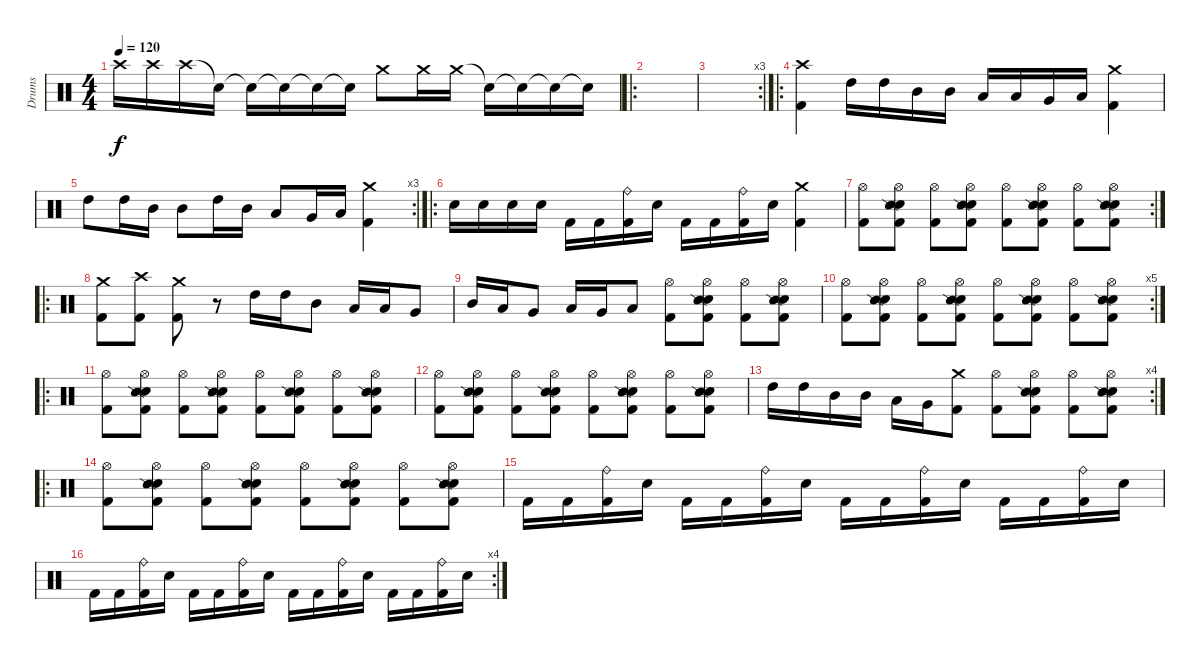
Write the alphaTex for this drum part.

\track ("Drums" "Drums") {instrument percussion}
\staff {score}
\articulation defaults
\ts (4 4)
\tempo 120
\clef neutral
\ks c "Crash high (hit)".16{dy f} "Crash high (hit)".16 "Crash high (hit)".16 "Snare (hit)"{t}.16 "Snare (hit)"{t}.16 "Snare (hit)"{t}.16 "Snare (hit)"{t}.16 "Snare (hit)"{t}.16 "Crash medium (hit)".8 "Crash medium (hit)".16 "Crash medium (hit)".16 "Snare (hit)"{t}.16 "Snare (hit)"{t}.16 "Snare (hit)"{t}.16 "Snare (hit)"{t}.16
|
\ro
|
\rc 3
|
\ro
("Crash high (hit)" "Kick (hit) 2").4 "High Tom (hit)".16 "High Tom (hit)".16 "Mid Tom (hit)".16 "Mid Tom (hit)".16 "Low Tom (hit)".16 "Low Tom (hit)".16 "Very Low Tom (hit)".16 "Low Floor Tom (hit)".16 ("Crash medium (hit)" "Kick (hit) 2").4 |
\rc 3 "High Tom (hit)".8 "High Tom (hit)".16 "Mid Tom (hit)".16 "Mid Tom (hit)".8 "High Tom (hit)".16 "Mid Tom (hit)".16 "Low Tom (hit)".8 "Very Low Tom (hit)".16 "Low Floor Tom (hit)".16
("Crash medium (hit)" "Kick (hit) 2").4 |
\ro "Electric Snare (hit)".16 "Electric Snare (hit)".16 "Electric Snare (hit)".16 "Electric Snare (hit)".16 "Kick (hit) 2".16 "Kick (hit) 2".16
("Ride (bell)" "Kick (hit) 2").16 "Electric Snare (hit)".16 "Kick (hit) 2".16 "Kick (hit) 2".16 ("Ride (bell)" "Kick (hit) 2").16 "Electric Snare (hit)".16 ("Crash medium (hit)" "Kick (hit) 2").4 |
\rc 2
("Hi-Hat (open)" "Kick (hit) 2").8 ("Hi-Hat (open)" "Electric Snare (hit)" "Snare (side stick) 2" "Kick (hit) 2").8 ("Hi-Hat (open)" "Kick (hit) 2").8 ("Hi-Hat (open)" "Electric Snare (hit)" "Snare (side stick) 2" "Kick (hit) 2").8 ("Hi-Hat (open)" "Kick (hit) 2").8 ("Hi-Hat (open)" "Electric Snare (hit)" "Snare (side stick) 2" "Kick (hit) 2").8 ("Hi-Hat (open)" "Kick (hit) 2").8 ("Hi-Hat (open)" "Electric Snare (hit)" "Snare (side stick) 2" "Kick (hit) 2").8 |
\ro
("Crash medium (hit)" "Kick (hit) 2").8 ("Crash high (hit)" "Kick (hit) 2").8 ("Crash medium (hit)" "Kick (hit) 2").8 r.8 "High Tom (hit)".16 "High Tom (hit)".16 "Mid Tom (hit)".8 "Low Tom (hit)".16 "Low Tom (hit)".16 "Very Low Tom (hit)".8 |
"Mid Tom (hit)".16 "Low Tom (hit)".16 "Very Low Tom (hit)".8 "Low Tom (hit)".16 "Very Low Tom (hit)".16 "Low Floor Tom (hit)".8 ("Hi-Hat (open)" "Kick (hit) 2").8 ("Hi-Hat (open)" "Electric Snare (hit)" "Snare (side stick) 2" "Kick (hit) 2").8 ("Hi-Hat (open)" "Kick (hit) 2").8 ("Hi-Hat (open)" "Electric Snare (hit)" "Snare (side stick) 2" "Kick (hit) 2").8 |
\rc 5
("Hi-Hat (open)" "Kick (hit) 2").8 ("Hi-Hat (open)" "Electric Snare (hit)" "Snare (side stick) 2" "Kick (hit) 2").8 ("Hi-Hat (open)" "Kick (hit) 2").8 ("Hi-Hat (open)" "Electric Snare (hit)" "Snare (side stick) 2" "Kick (hit) 2").8 ("Hi-Hat (open)" "Kick (hit) 2").8 ("Hi-Hat (open)" "Electric Snare (hit)" "Snare (side stick) 2" "Kick (hit) 2").8 ("Hi-Hat (open)" "Kick (hit) 2").8 ("Hi-Hat (open)" "Electric Snare (hit)" "Snare (side stick) 2" "Kick (hit) 2").8 |
\ro
("Hi-Hat (open)" "Kick (hit) 2").8 ("Hi-Hat (open)" "Electric Snare (hit)" "Snare (side stick) 2" "Kick (hit) 2").8 ("Hi-Hat (open)" "Kick (hit) 2").8 ("Hi-Hat (open)" "Electric Snare (hit)" "Snare (side stick) 2" "Kick (hit) 2").8 ("Hi-Hat (open)" "Kick (hit) 2").8 ("Hi-Hat (open)" "Electric Snare (hit)" "Snare (side stick) 2" "Kick (hit) 2").8 ("Hi-Hat (open)" "Kick (hit) 2").8 ("Hi-Hat (open)" "Electric Snare (hit)" "Snare (side stick) 2" "Kick (hit) 2").8 |
("Hi-Hat (open)" "Kick (hit) 2").8 ("Hi-Hat (open)" "Electric Snare (hit)" "Snare (side stick) 2" "Kick (hit) 2").8 ("Hi-Hat (open)" "Kick (hit) 2").8 ("Hi-Hat (open)" "Electric Snare (hit)" "Snare (side stick) 2" "Kick (hit) 2").8 ("Hi-Hat (open)" "Kick (hit) 2").8 ("Hi-Hat (open)" "Electric Snare (hit)" "Snare (side stick) 2" "Kick (hit) 2").8 ("Hi-Hat (open)" "Kick (hit) 2").8 ("Hi-Hat (open)" "Electric Snare (hit)" "Snare (side stick) 2" "Kick (hit) 2").8 |
\rc 4 "High Tom (hit)".16 "High Tom (hit)".16 "Mid Tom (hit)".16 "Mid Tom (hit)".16 "Low Tom (hit)".16 "Very Low Tom (hit)".16
("Crash medium (hit)" "Kick (hit) 2").8 ("Hi-Hat (open)" "Kick (hit) 2").8 ("Hi-Hat (open)" "Electric Snare (hit)" "Snare (side stick) 2" "Kick (hit) 2").8 ("Hi-Hat (open)" "Kick (hit) 2").8 ("Hi-Hat (open)" "Electric Snare (hit)" "Snare (side stick) 2" "Kick (hit) 2").8 |
\ro
("Hi-Hat (open)" "Kick (hit) 2").8 ("Hi-Hat (open)" "Electric Snare (hit)" "Snare (side stick) 2" "Kick (hit) 2").8 ("Hi-Hat (open)" "Kick (hit) 2").8 ("Hi-Hat (open)" "Electric Snare (hit)" "Snare (side stick) 2" "Kick (hit) 2").8 ("Hi-Hat (open)" "Kick (hit) 2").8 ("Hi-Hat (open)" "Electric Snare (hit)" "Snare (side stick) 2" "Kick (hit) 2").8 ("Hi-Hat (open)" "Kick (hit) 2").8 ("Hi-Hat (open)" "Electric Snare (hit)" "Snare (side stick) 2" "Kick (hit) 2").8 |
"Kick (hit) 2".16 "Kick (hit) 2".16 ("Ride (bell)" "Kick (hit) 2").16 "Electric Snare (hit)".16 "Kick (hit) 2".16 "Kick (hit) 2".16 ("Ride (bell)" "Kick (hit) 2").16 "Electric Snare (hit)".16 "Kick (hit) 2".16 "Kick (hit) 2".16 ("Ride (bell)" "Kick (hit) 2").16 "Electric Snare (hit)".16 "Kick (hit) 2".16 "Kick (hit) 2".16 ("Ride (bell)" "Kick (hit) 2").16 "Electric Snare (hit)".16 |
\rc 4 "Kick (hit) 2".16 "Kick (hit) 2".16
("Ride (bell)" "Kick (hit) 2").16 "Electric Snare (hit)".16 "Kick (hit) 2".16 "Kick (hit) 2".16 ("Ride (bell)" "Kick (hit) 2").16 "Electric Snare (hit)".16 "Kick (hit) 2".16 "Kick (hit) 2".16 ("Ride (bell)" "Kick (hit) 2").16 "Electric Snare (hit)".16 "Kick (hit) 2".16 "Kick (hit) 2".16 ("Ride (bell)" "Kick (hit) 2").16 "Electric Snare (hit)".16
